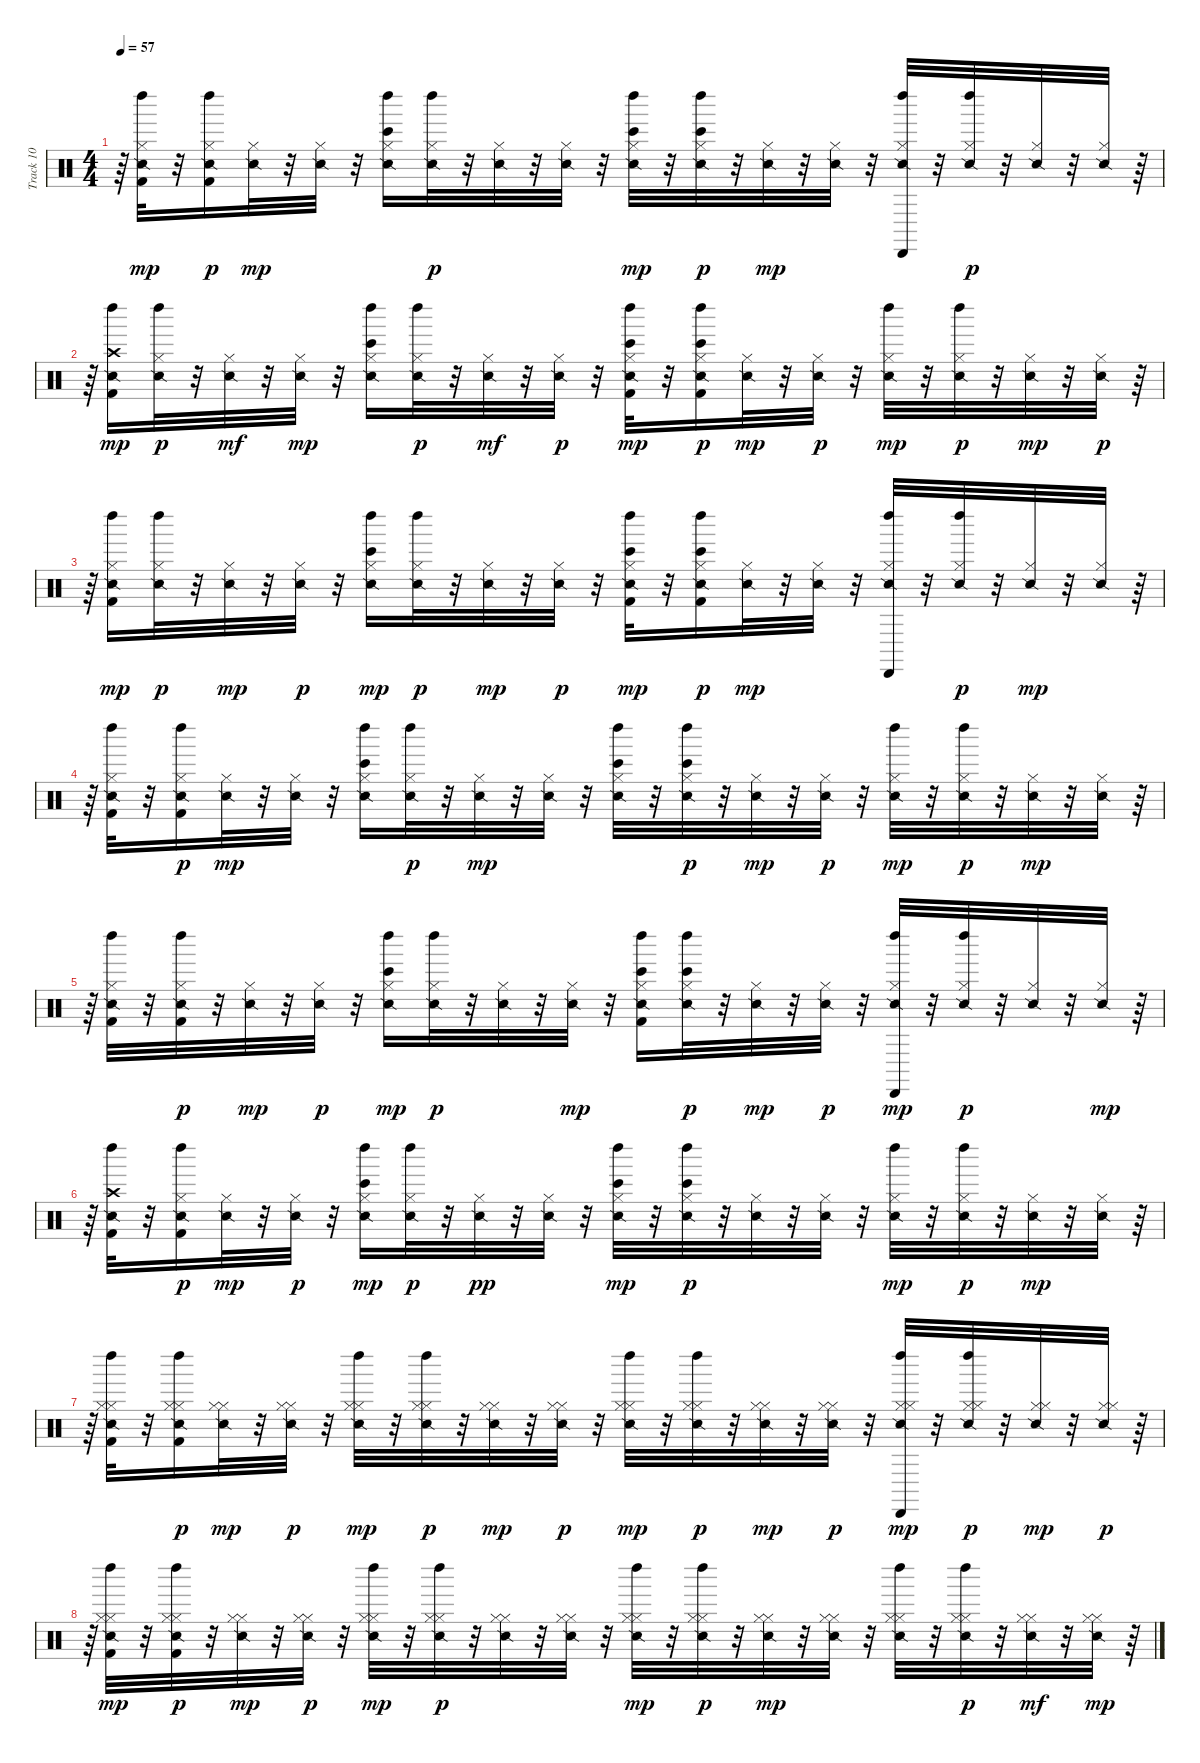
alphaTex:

\track ("Track 10" "Track 10") {instrument percussion}
\staff {score}
\articulation defaults
\ts (4 4)
\tempo 57
\clef neutral
\ks c
r.64{dy p} ("Snare (side stick) 2" "Kick (hit) 2" "Hi-Hat (closed)" "Left Maraca (hit)").32{dy mp} r.32 ("Snare (side stick) 2" "Kick (hit) 2" "Hi-Hat (closed)" "Left Maraca (hit)").16{dy p} ("Snare (side stick) 2" "Hi-Hat (closed)").32{dy mp} r.32 ("Snare (side stick) 2" "Hi-Hat (closed)").32 r.32 ("Bongo High (hit)" "Snare (side stick) 2" "Hi-Hat (closed)" "Left Maraca (hit)").16 ("Snare (side stick) 2" "Hi-Hat (closed)" "Left Maraca (hit)").32{dy p} r.32 ("Snare (side stick) 2" "Hi-Hat (closed)").32 r.32 ("Snare (side stick) 2" "Hi-Hat (closed)").32 r.32 ("Bongo High (hit)" "Snare (side stick) 2" "Hi-Hat (closed)" "Left Maraca (hit)").32{dy mp} r.32 ("Bongo High (hit)" "Snare (side stick) 2" "Hi-Hat (closed)" "Left Maraca (hit)").32{dy p} r.32 ("Snare (side stick) 2" "Hi-Hat (closed)").32{dy mp} r.32 ("Snare (side stick) 2" "Hi-Hat (closed)").32 r.32 ("Snare (side stick) 2" "Hi-Hat (closed)" "Left Maraca (hit)" "Cabasa (hit)").32 r.32 ("Snare (side stick) 2" "Hi-Hat (closed)" "Left Maraca (hit)").32{dy p} r.32 ("Snare (side stick) 2" "Hi-Hat (closed)").32 r.32 ("Snare (side stick) 2" "Hi-Hat (closed)").32 r.64 |
r.64 ("Snare (side stick) 2" "Kick (hit) 2" "Crash high (hit)" "Left Maraca (hit)").16{dy mp} ("Snare (side stick) 2" "Hi-Hat (closed)" "Left Maraca (hit)").32{dy p} r.32 ("Snare (side stick) 2" "Hi-Hat (closed)").32{dy mf} r.32 ("Snare (side stick) 2" "Hi-Hat (closed)").32{dy mp} r.32 ("Bongo High (hit)" "Snare (side stick) 2" "Hi-Hat (closed)" "Left Maraca (hit)").16 ("Snare (side stick) 2" "Hi-Hat (closed)" "Left Maraca (hit)").32{dy p} r.32 ("Snare (side stick) 2" "Hi-Hat (closed)").32{dy mf} r.32 ("Snare (side stick) 2" "Hi-Hat (closed)").32{dy p} r.32 ("Bongo High (hit)" "Snare (side stick) 2" "Kick (hit) 2" "Hi-Hat (closed)" "Left Maraca (hit)").32{dy mp} r.32 ("Bongo High (hit)" "Snare (side stick) 2" "Kick (hit) 2" "Hi-Hat (closed)" "Left Maraca (hit)").16{dy p} ("Snare (side stick) 2" "Hi-Hat (closed)").32{dy mp} r.32 ("Snare (side stick) 2" "Hi-Hat (closed)").32{dy p} r.32 ("Snare (side stick) 2" "Hi-Hat (closed)" "Left Maraca (hit)").32{dy mp} r.32 ("Snare (side stick) 2" "Hi-Hat (closed)" "Left Maraca (hit)").32{dy p} r.32 ("Snare (side stick) 2" "Hi-Hat (closed)").32{dy mp} r.32 ("Snare (side stick) 2" "Hi-Hat (closed)").32{dy p} r.64 |
r.64 ("Snare (side stick) 2" "Kick (hit) 2" "Hi-Hat (closed)" "Left Maraca (hit)").16{dy mp} ("Snare (side stick) 2" "Hi-Hat (closed)" "Left Maraca (hit)").32{dy p} r.32 ("Snare (side stick) 2" "Hi-Hat (closed)").32{dy mp} r.32 ("Snare (side stick) 2" "Hi-Hat (closed)").32{dy p} r.32 ("Bongo High (hit)" "Snare (side stick) 2" "Hi-Hat (closed)" "Left Maraca (hit)").16{dy mp} ("Snare (side stick) 2" "Hi-Hat (closed)" "Left Maraca (hit)").32{dy p} r.32 ("Snare (side stick) 2" "Hi-Hat (closed)").32{dy mp} r.32 ("Snare (side stick) 2" "Hi-Hat (closed)").32{dy p} r.32 ("Bongo High (hit)" "Snare (side stick) 2" "Kick (hit) 2" "Hi-Hat (closed)" "Left Maraca (hit)").32{dy mp} r.32 ("Bongo High (hit)" "Snare (side stick) 2" "Kick (hit) 2" "Hi-Hat (closed)" "Left Maraca (hit)").16{dy p} ("Snare (side stick) 2" "Hi-Hat (closed)").32{dy mp} r.32 ("Snare (side stick) 2" "Hi-Hat (closed)").32 r.32 ("Snare (side stick) 2" "Hi-Hat (closed)" "Left Maraca (hit)" "Cabasa (hit)").32 r.32 ("Snare (side stick) 2" "Hi-Hat (closed)" "Left Maraca (hit)").32{dy p} r.32 ("Snare (side stick) 2" "Hi-Hat (closed)").32{dy mp} r.32 ("Snare (side stick) 2" "Hi-Hat (closed)").32 r.64 |
r.64 ("Snare (side stick) 2" "Kick (hit) 2" "Hi-Hat (closed)" "Left Maraca (hit)").32 r.32 ("Snare (side stick) 2" "Kick (hit) 2" "Hi-Hat (closed)" "Left Maraca (hit)").16{dy p} ("Snare (side stick) 2" "Hi-Hat (closed)").32{dy mp} r.32 ("Snare (side stick) 2" "Hi-Hat (closed)").32 r.32 ("Bongo High (hit)" "Snare (side stick) 2" "Hi-Hat (closed)" "Left Maraca (hit)").16 ("Snare (side stick) 2" "Hi-Hat (closed)" "Left Maraca (hit)").32{dy p} r.32 ("Snare (side stick) 2" "Hi-Hat (closed)").32{dy mp} r.32 ("Snare (side stick) 2" "Hi-Hat (closed)").32 r.32 ("Bongo High (hit)" "Snare (side stick) 2" "Hi-Hat (closed)" "Left Maraca (hit)").32 r.32 ("Bongo High (hit)" "Snare (side stick) 2" "Hi-Hat (closed)" "Left Maraca (hit)").32{dy p} r.32 ("Snare (side stick) 2" "Hi-Hat (closed)").32{dy mp} r.32 ("Snare (side stick) 2" "Hi-Hat (closed)").32{dy p} r.32 ("Snare (side stick) 2" "Hi-Hat (closed)" "Left Maraca (hit)").32{dy mp} r.32 ("Snare (side stick) 2" "Hi-Hat (closed)" "Left Maraca (hit)").32{dy p} r.32 ("Snare (side stick) 2" "Hi-Hat (closed)").32{dy mp} r.32 ("Snare (side stick) 2" "Hi-Hat (closed)").32 r.64 |
r.64 ("Snare (side stick) 2" "Kick (hit) 2" "Hi-Hat (closed)" "Left Maraca (hit)").32 r.32 ("Snare (side stick) 2" "Kick (hit) 2" "Hi-Hat (closed)" "Left Maraca (hit)").32{dy p} r.32 ("Snare (side stick) 2" "Hi-Hat (closed)").32{dy mp} r.32 ("Snare (side stick) 2" "Hi-Hat (closed)").32{dy p} r.32 ("Bongo High (hit)" "Snare (side stick) 2" "Hi-Hat (closed)" "Left Maraca (hit)").16{dy mp} ("Snare (side stick) 2" "Hi-Hat (closed)" "Left Maraca (hit)").32{dy p} r.32 ("Snare (side stick) 2" "Hi-Hat (closed)").32 r.32 ("Snare (side stick) 2" "Hi-Hat (closed)").32{dy mp} r.32 ("Bongo High (hit)" "Snare (side stick) 2" "Kick (hit) 2" "Hi-Hat (closed)" "Left Maraca (hit)").16 ("Bongo High (hit)" "Snare (side stick) 2" "Hi-Hat (closed)" "Left Maraca (hit)").32{dy p} r.32 ("Snare (side stick) 2" "Hi-Hat (closed)").32{dy mp} r.32 ("Snare (side stick) 2" "Hi-Hat (closed)").32{dy p} r.32 ("Snare (side stick) 2" "Hi-Hat (closed)" "Left Maraca (hit)" "Cabasa (hit)").32{dy mp} r.32 ("Snare (side stick) 2" "Hi-Hat (closed)" "Left Maraca (hit)").32{dy p} r.32 ("Snare (side stick) 2" "Hi-Hat (closed)").32 r.32 ("Snare (side stick) 2" "Hi-Hat (closed)").32{dy mp} r.64 |
r.64 ("Snare (side stick) 2" "Kick (hit) 2" "Crash high (hit)" "Left Maraca (hit)").32 r.32 ("Snare (side stick) 2" "Kick (hit) 2" "Hi-Hat (closed)" "Left Maraca (hit)").16{dy p} ("Snare (side stick) 2" "Hi-Hat (closed)").32{dy mp} r.32 ("Snare (side stick) 2" "Hi-Hat (closed)").32{dy p} r.32 ("Bongo High (hit)" "Snare (side stick) 2" "Hi-Hat (closed)" "Left Maraca (hit)").16{dy mp} ("Snare (side stick) 2" "Hi-Hat (closed)" "Left Maraca (hit)").32{dy p} r.32 ("Snare (side stick) 2" "Hi-Hat (closed)").32{dy pp} r.32 ("Snare (side stick) 2" "Hi-Hat (closed)").32 r.32 ("Bongo High (hit)" "Snare (side stick) 2" "Hi-Hat (closed)" "Left Maraca (hit)").32{dy mp} r.32 ("Bongo High (hit)" "Snare (side stick) 2" "Hi-Hat (closed)" "Left Maraca (hit)").32{dy p} r.32 ("Snare (side stick) 2" "Hi-Hat (closed)").32 r.32 ("Snare (side stick) 2" "Hi-Hat (closed)").32 r.32 ("Snare (side stick) 2" "Hi-Hat (closed)" "Left Maraca (hit)").32{dy mp} r.32 ("Snare (side stick) 2" "Hi-Hat (closed)" "Left Maraca (hit)").32{dy p} r.32 ("Snare (side stick) 2" "Hi-Hat (closed)").32{dy mp} r.32 ("Snare (side stick) 2" "Hi-Hat (closed)").32 r.64 |
r.64 ("Snare (side stick) 2" "Kick (hit) 2" "Hi-Hat (closed)" "Hi-Hat (closed)" "Left Maraca (hit)").32 r.32 ("Snare (side stick) 2" "Kick (hit) 2" "Hi-Hat (closed)" "Hi-Hat (closed)" "Left Maraca (hit)").16{dy p} ("Snare (side stick) 2" "Hi-Hat (closed)" "Hi-Hat (closed)").32{dy mp} r.32 ("Snare (side stick) 2" "Hi-Hat (closed)" "Hi-Hat (closed)").32{dy p} r.32 ("Snare (side stick) 2" "Hi-Hat (closed)" "Hi-Hat (closed)" "Left Maraca (hit)").32{dy mp} r.32 ("Snare (side stick) 2" "Hi-Hat (closed)" "Hi-Hat (closed)" "Left Maraca (hit)").32{dy p} r.32 ("Snare (side stick) 2" "Hi-Hat (closed)" "Hi-Hat (closed)").32{dy mp} r.32 ("Snare (side stick) 2" "Hi-Hat (closed)" "Hi-Hat (closed)").32{dy p} r.32 ("Snare (side stick) 2" "Hi-Hat (closed)" "Hi-Hat (closed)" "Left Maraca (hit)").32{dy mp} r.32 ("Snare (side stick) 2" "Hi-Hat (closed)" "Hi-Hat (closed)" "Left Maraca (hit)").32{dy p} r.32 ("Snare (side stick) 2" "Hi-Hat (closed)" "Hi-Hat (closed)").32{dy mp} r.32 ("Snare (side stick) 2" "Hi-Hat (closed)" "Hi-Hat (closed)").32{dy p} r.32 ("Snare (side stick) 2" "Hi-Hat (closed)" "Hi-Hat (closed)" "Left Maraca (hit)" "Cabasa (hit)").32{dy mp} r.32 ("Snare (side stick) 2" "Hi-Hat (closed)" "Hi-Hat (closed)" "Left Maraca (hit)").32{dy p} r.32 ("Snare (side stick) 2" "Hi-Hat (closed)" "Hi-Hat (closed)").32{dy mp} r.32 ("Snare (side stick) 2" "Hi-Hat (closed)" "Hi-Hat (closed)").32{dy p} r.64 |
r.64 ("Snare (side stick) 2" "Kick (hit) 2" "Hi-Hat (closed)" "Hi-Hat (closed)" "Left Maraca (hit)").32{dy mp} r.32 ("Snare (side stick) 2" "Kick (hit) 2" "Hi-Hat (closed)" "Hi-Hat (closed)" "Left Maraca (hit)").32{dy p} r.32 ("Snare (side stick) 2" "Hi-Hat (closed)" "Hi-Hat (closed)").32{dy mp} r.32 ("Snare (side stick) 2" "Hi-Hat (closed)" "Hi-Hat (closed)").32{dy p} r.32 ("Snare (side stick) 2" "Hi-Hat (closed)" "Hi-Hat (closed)" "Left Maraca (hit)").32{dy mp} r.32 ("Snare (side stick) 2" "Hi-Hat (closed)" "Hi-Hat (closed)" "Left Maraca (hit)").32{dy p} r.32 ("Snare (side stick) 2" "Hi-Hat (closed)" "Hi-Hat (closed)").32 r.32 ("Snare (side stick) 2" "Hi-Hat (closed)" "Hi-Hat (closed)").32 r.32 ("Snare (side stick) 2" "Hi-Hat (closed)" "Hi-Hat (closed)" "Left Maraca (hit)").32{dy mp} r.32 ("Snare (side stick) 2" "Hi-Hat (closed)" "Hi-Hat (closed)" "Left Maraca (hit)").32{dy p} r.32 ("Snare (side stick) 2" "Hi-Hat (closed)" "Hi-Hat (closed)").32{dy mp} r.32 ("Snare (side stick) 2" "Hi-Hat (closed)" "Hi-Hat (closed)").32 r.32 ("Snare (side stick) 2" "Hi-Hat (closed)" "Hi-Hat (closed)" "Left Maraca (hit)").32 r.32 ("Snare (side stick) 2" "Hi-Hat (closed)" "Hi-Hat (closed)" "Left Maraca (hit)").32{dy p} r.32 ("Snare (side stick) 2" "Hi-Hat (closed)" "Hi-Hat (closed)").32{dy mf} r.32 ("Snare (side stick) 2" "Hi-Hat (closed)" "Hi-Hat (closed)").32{dy mp} r.64
